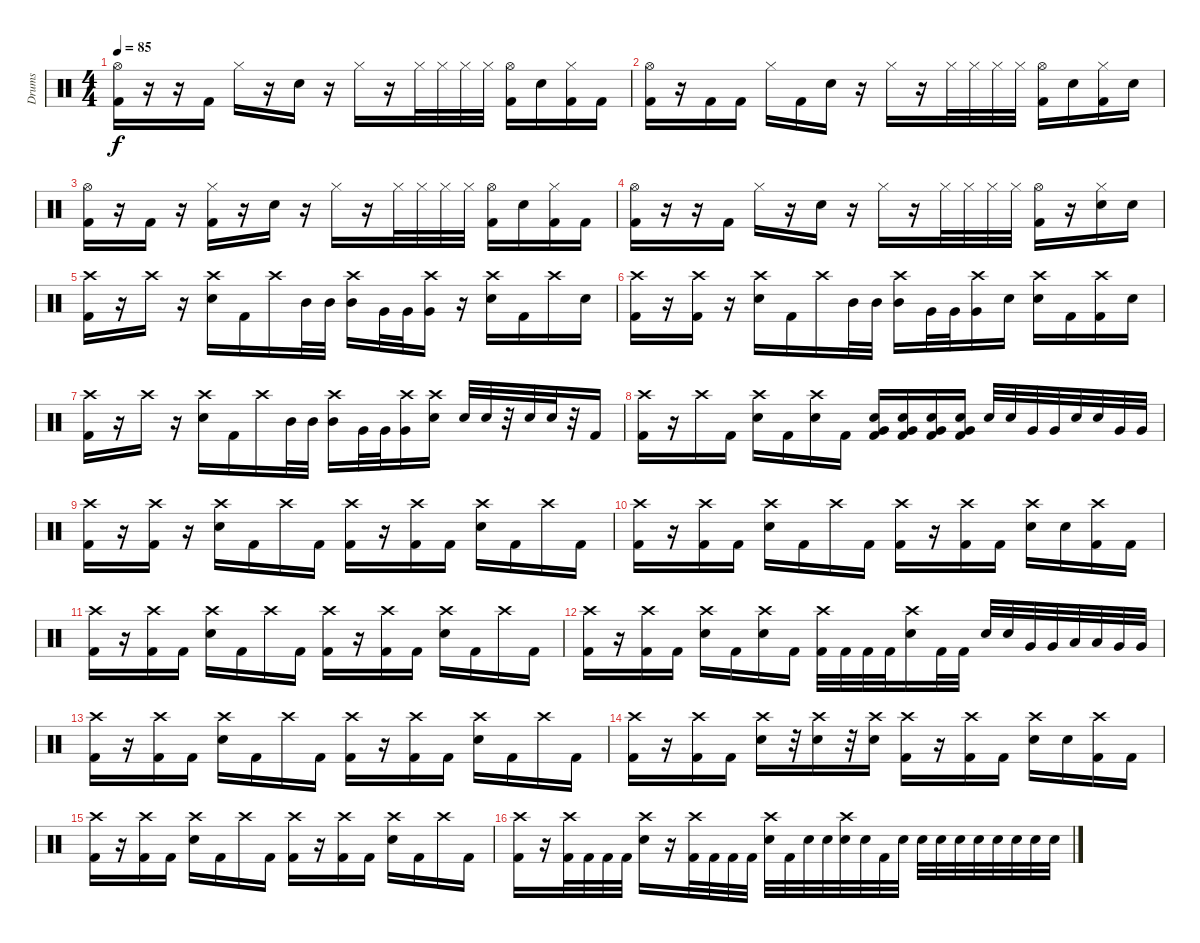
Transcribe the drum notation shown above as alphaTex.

\track ("Drums" "Drums") {instrument percussion}
\staff {score}
\articulation defaults
\ts (4 4)
\tempo 85
\clef neutral
\ks c
("Hi-Hat (open)" "Kick (hit) 2").16{dy f} r.16 r.16 "Kick (hit) 2".16 "Hi-Hat (closed)".16 r.16 "Snare (hit) 2".16 r.16 "Hi-Hat (closed)".16 r.16 "Hi-Hat (closed)".32 "Hi-Hat (closed)".32 "Hi-Hat (closed)".32 "Hi-Hat (closed)".32 ("Hi-Hat (open)" "Kick (hit) 2").16 "Snare (hit) 2".16 ("Hi-Hat (closed)" "Kick (hit) 2").16 "Kick (hit) 2".16 |
("Hi-Hat (open)" "Kick (hit) 2").16 r.16 "Kick (hit) 2".16 "Kick (hit) 2".16 "Hi-Hat (closed)".16 "Kick (hit) 2".16 "Snare (hit) 2".16 r.16 "Hi-Hat (closed)".16 r.16 "Hi-Hat (closed)".32 "Hi-Hat (closed)".32 "Hi-Hat (closed)".32 "Hi-Hat (closed)".32 ("Hi-Hat (open)" "Kick (hit) 2").16 "Snare (hit) 2".16 ("Hi-Hat (closed)" "Kick (hit) 2").16 "Snare (hit) 2".16 |
("Hi-Hat (open)" "Kick (hit) 2").16 r.16 "Kick (hit) 2".16 r.16 ("Hi-Hat (closed)" "Kick (hit) 2").16 r.16 "Snare (hit) 2".16 r.16 "Hi-Hat (closed)".16 r.16 "Hi-Hat (closed)".32 "Hi-Hat (closed)".32 "Hi-Hat (closed)".32 "Hi-Hat (closed)".32 ("Hi-Hat (open)" "Kick (hit) 2").16 "Snare (hit) 2".16 ("Hi-Hat (closed)" "Kick (hit) 2").16 "Kick (hit) 2".16 |
("Hi-Hat (open)" "Kick (hit) 2").16 r.16 r.16 "Kick (hit) 2".16 "Hi-Hat (closed)".16 r.16 "Snare (hit) 2".16 r.16 "Hi-Hat (closed)".16 r.16 "Hi-Hat (closed)".32 "Hi-Hat (closed)".32 "Hi-Hat (closed)".32 "Hi-Hat (closed)".32 ("Hi-Hat (open)" "Kick (hit) 2").16 r.16 ("Hi-Hat (closed)" "Snare (hit) 2").16 "Snare (hit) 2".16 |
("Crash high (hit)" "Kick (hit) 2").16 r.16 "Crash high (hit)".16 r.16 ("Crash high (hit)" "Snare (hit) 2").16 "Kick (hit) 2".16 "Crash high (hit)".16 "Mid Tom (hit)".32 "Mid Tom (hit)".32 ("Crash high (hit)" "Mid Tom (hit)").16 "Very Low Tom (hit)".32 "Very Low Tom (hit)".32 ("Crash high (hit)" "Very Low Tom (hit)").16 r.16 ("Crash high (hit)" "Snare (hit) 2").16 "Kick (hit) 2".16 "Crash high (hit)".16 "Snare (hit) 2".16 |
("Crash high (hit)" "Kick (hit) 2").16 r.16 ("Crash high (hit)" "Kick (hit) 2").16 r.16 ("Crash high (hit)" "Snare (hit) 2").16 "Kick (hit) 2".16 "Crash high (hit)".16 "Mid Tom (hit)".32 "Mid Tom (hit)".32 ("Crash high (hit)" "Mid Tom (hit)").16 "Very Low Tom (hit)".32 "Very Low Tom (hit)".32 ("Crash high (hit)" "Very Low Tom (hit)").16 "Snare (hit) 2".16 ("Crash high (hit)" "Snare (hit) 2").16 "Kick (hit) 2".16 ("Crash high (hit)" "Kick (hit) 2").16 "Snare (hit) 2".16 |
("Crash high (hit)" "Kick (hit) 2").16 r.16 "Crash high (hit)".16 r.16 ("Crash high (hit)" "Snare (hit) 2").16 "Kick (hit) 2".16 "Crash high (hit)".16 "Mid Tom (hit)".32 "Mid Tom (hit)".32 ("Crash high (hit)" "Mid Tom (hit)").16 "Very Low Tom (hit)".32 "Very Low Tom (hit)".32 ("Crash high (hit)" "Very Low Tom (hit)").16 ("Crash high (hit)" "Snare (hit) 2").16 "Snare (hit) 2".32 "Snare (hit) 2".32 r.32 "Snare (hit) 2".32 "Snare (hit) 2".32 r.32 "Kick (hit) 2".16 |
("Crash high (hit)" "Kick (hit) 2").16 r.16 "Crash high (hit)".16 "Kick (hit) 2".16 ("Crash high (hit)" "Snare (hit) 2").16 "Kick (hit) 2".16 ("Crash high (hit)" "Snare (hit) 2").16 "Kick (hit) 2".16 ("Snare (hit) 2" "Very Low Tom (hit)" "Kick (hit) 2").16 ("Snare (hit) 2" "Very Low Tom (hit)" "Kick (hit) 2").16 ("Snare (hit) 2" "Very Low Tom (hit)" "Kick (hit) 2").16 ("Snare (hit) 2" "Very Low Tom (hit)" "Kick (hit) 2").16 "Snare (hit) 2".32 "Snare (hit) 2".32 "Very Low Tom (hit)".32 "Very Low Tom (hit)".32 "Snare (hit) 2".32 "Snare (hit) 2".32 "Very Low Tom (hit)".32 "Very Low Tom (hit)".32 |
("Crash high (hit)" "Kick (hit) 2").16 r.16 ("Crash high (hit)" "Kick (hit) 2").16 r.16 ("Crash high (hit)" "Snare (hit) 2").16 "Kick (hit) 2".16 "Crash high (hit)".16 "Kick (hit) 2".16 ("Crash high (hit)" "Kick (hit) 2").16 r.16 ("Crash high (hit)" "Kick (hit) 2").16 "Kick (hit) 2".16 ("Crash high (hit)" "Snare (hit) 2").16 "Kick (hit) 2".16 "Crash high (hit)".16 "Kick (hit) 2".16 |
("Crash high (hit)" "Kick (hit) 2").16 r.16 ("Crash high (hit)" "Kick (hit) 2").16 "Kick (hit) 2".16 ("Crash high (hit)" "Snare (hit) 2").16 "Kick (hit) 2".16 "Crash high (hit)".16 "Kick (hit) 2".16 ("Crash high (hit)" "Kick (hit) 2").16 r.16 ("Crash high (hit)" "Kick (hit) 2").16 "Kick (hit) 2".16 ("Crash high (hit)" "Snare (hit) 2").16 "Snare (hit) 2".16 ("Crash high (hit)" "Kick (hit) 2").16 "Kick (hit) 2".16 |
("Crash high (hit)" "Kick (hit) 2").16 r.16 ("Crash high (hit)" "Kick (hit) 2").16 "Kick (hit) 2".16 ("Crash high (hit)" "Snare (hit) 2").16 "Kick (hit) 2".16 "Crash high (hit)".16 "Kick (hit) 2".16 ("Crash high (hit)" "Kick (hit) 2").16 r.16 ("Crash high (hit)" "Kick (hit) 2").16 "Kick (hit) 2".16 ("Crash high (hit)" "Snare (hit) 2").16 "Kick (hit) 2".16 "Crash high (hit)".16 "Kick (hit) 2".16 |
("Crash high (hit)" "Kick (hit) 2").16 r.16 ("Crash high (hit)" "Kick (hit) 2").16 "Kick (hit) 2".16 ("Crash high (hit)" "Snare (hit) 2").16 "Kick (hit) 2".16 ("Crash high (hit)" "Snare (hit) 2").16 "Kick (hit) 2".16 ("Crash high (hit)" "Kick (hit) 2").32 "Kick (hit) 2".32 "Kick (hit) 2".32 "Kick (hit) 2".32 ("Crash high (hit)" "Snare (hit) 2").16 "Kick (hit) 2".32 "Kick (hit) 2".32 "Snare (hit) 2".32 "Snare (hit) 2".32 "Very Low Tom (hit)".32 "Very Low Tom (hit)".32 "Low Tom (hit)".32 "Low Tom (hit)".32 "Very Low Tom (hit)".32 "Very Low Tom (hit)".32 |
("Crash high (hit)" "Kick (hit) 2").16 r.16 ("Crash high (hit)" "Kick (hit) 2").16 "Kick (hit) 2".16 ("Crash high (hit)" "Snare (hit) 2").16 "Kick (hit) 2".16 "Crash high (hit)".16 "Kick (hit) 2".16 ("Crash high (hit)" "Kick (hit) 2").16 r.16 ("Crash high (hit)" "Kick (hit) 2").16 "Kick (hit) 2".16 ("Crash high (hit)" "Snare (hit) 2").16 "Kick (hit) 2".16 "Crash high (hit)".16 "Kick (hit) 2".16 |
("Crash high (hit)" "Kick (hit) 2").16 r.16 ("Crash high (hit)" "Kick (hit) 2").16 "Kick (hit) 2".16 ("Crash high (hit)" "Snare (hit) 2").16 r.32 ("Crash high (hit)" "Snare (hit) 2").16 r.32 ("Crash high (hit)" "Snare (hit) 2").16 ("Crash high (hit)" "Kick (hit) 2").16 r.16 ("Crash high (hit)" "Kick (hit) 2").16 "Kick (hit) 2".16 ("Crash high (hit)" "Snare (hit) 2").16 "Snare (hit) 2".16 ("Crash high (hit)" "Kick (hit) 2").16 "Kick (hit) 2".16 |
("Crash high (hit)" "Kick (hit) 2").16 r.16 ("Crash high (hit)" "Kick (hit) 2").16 "Kick (hit) 2".16 ("Crash high (hit)" "Snare (hit) 2").16 "Kick (hit) 2".16 "Crash high (hit)".16 "Kick (hit) 2".16 ("Crash high (hit)" "Kick (hit) 2").16 r.16 ("Crash high (hit)" "Kick (hit) 2").16 "Kick (hit) 2".16 ("Crash high (hit)" "Snare (hit) 2").16 "Kick (hit) 2".16 "Crash high (hit)".16 "Kick (hit) 2".16 |
("Crash high (hit)" "Kick (hit) 2").16 r.16 ("Crash high (hit)" "Kick (hit) 2").32 "Kick (hit) 2".32 "Kick (hit) 2".32 "Kick (hit) 2".32 ("Crash high (hit)" "Snare (hit) 2").16 r.16 ("Crash high (hit)" "Kick (hit) 2").32 "Kick (hit) 2".32 "Kick (hit) 2".32 "Kick (hit) 2".32 ("Crash high (hit)" "Snare (hit) 2").32 "Kick (hit) 2".32 "Snare (hit) 2".32 "Snare (hit) 2".32 ("Crash high (hit)" "Snare (hit) 2").32 "Snare (hit) 2".32 "Kick (hit) 2".32 "Snare (hit) 2".32 "Snare (hit) 2".32 "Snare (hit) 2".32 "Snare (hit) 2".32 "Snare (hit) 2".32 "Snare (hit) 2".32 "Snare (hit) 2".32 "Snare (hit) 2".32 "Snare (hit) 2".32
